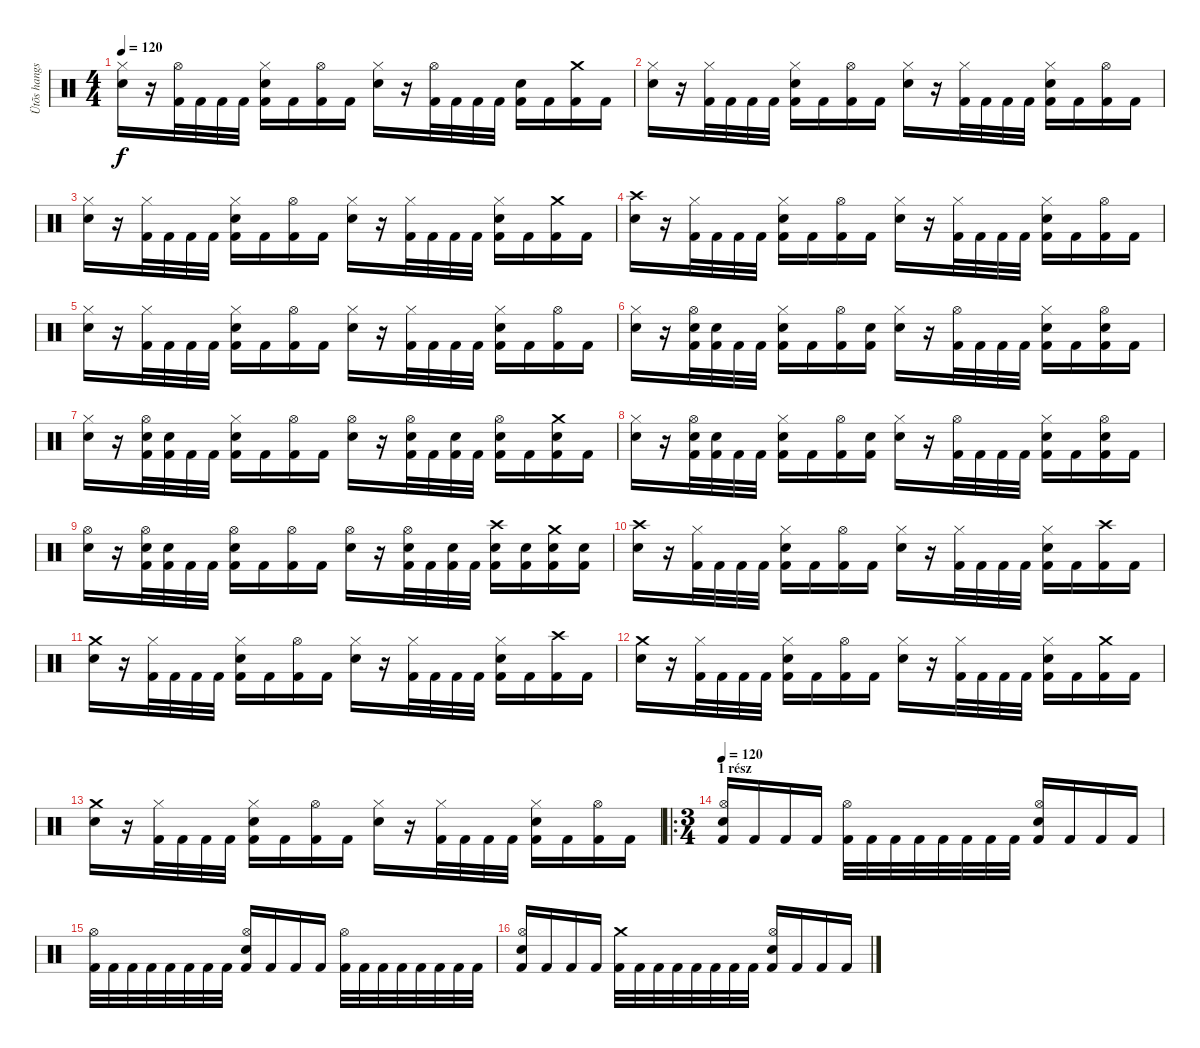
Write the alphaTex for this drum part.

\track ("Ütõs hangszer" "Ütõs hangs") {instrument percussion}
\staff {score}
\articulation defaults
\ts (4 4)
\tempo 120
\clef neutral
\ks c
("Hi-Hat (closed)" "Electric Snare (hit)").16{dy f} r.16 ("Hi-Hat (open)" "Kick (hit) 2").32 "Kick (hit) 2".32 "Kick (hit) 2".32 "Kick (hit) 2".32 ("Hi-Hat (closed)" "Electric Snare (hit)" "Kick (hit) 2").16 "Kick (hit) 2".16 ("Hi-Hat (open)" "Kick (hit) 2").16 "Kick (hit) 2".16 ("Hi-Hat (closed)" "Electric Snare (hit)").16 r.16 ("Hi-Hat (open)" "Kick (hit) 2").32 "Kick (hit) 2".32 "Kick (hit) 2".32 "Kick (hit) 2".32 ("Electric Snare (hit)" "Kick (hit) 2").16 "Kick (hit) 2".16 ("Crash medium (hit)" "Kick (hit) 2").16 "Kick (hit) 2".16 |
("Hi-Hat (closed)" "Electric Snare (hit)").16 r.16 ("Hi-Hat (closed)" "Kick (hit) 2").32 "Kick (hit) 2".32 "Kick (hit) 2".32 "Kick (hit) 2".32 ("Hi-Hat (closed)" "Electric Snare (hit)" "Kick (hit) 2").16 "Kick (hit) 2".16 ("Hi-Hat (open)" "Kick (hit) 2").16 "Kick (hit) 2".16 ("Hi-Hat (closed)" "Electric Snare (hit)").16 r.16 ("Hi-Hat (closed)" "Kick (hit) 2").32 "Kick (hit) 2".32 "Kick (hit) 2".32 "Kick (hit) 2".32 ("Hi-Hat (closed)" "Electric Snare (hit)" "Kick (hit) 2").16 "Kick (hit) 2".16 ("Hi-Hat (open)" "Kick (hit) 2").16 "Kick (hit) 2".16 |
("Hi-Hat (closed)" "Electric Snare (hit)").16 r.16 ("Hi-Hat (closed)" "Kick (hit) 2").32 "Kick (hit) 2".32 "Kick (hit) 2".32 "Kick (hit) 2".32 ("Hi-Hat (closed)" "Electric Snare (hit)" "Kick (hit) 2").16 "Kick (hit) 2".16 ("Hi-Hat (open)" "Kick (hit) 2").16 "Kick (hit) 2".16 ("Hi-Hat (closed)" "Electric Snare (hit)").16 r.16 ("Hi-Hat (closed)" "Kick (hit) 2").32 "Kick (hit) 2".32 "Kick (hit) 2".32 "Kick (hit) 2".32 ("Hi-Hat (closed)" "Electric Snare (hit)" "Kick (hit) 2").16 "Kick (hit) 2".16 ("Crash medium (hit)" "Kick (hit) 2").16 "Kick (hit) 2".16 |
("Crash high (hit)" "Electric Snare (hit)").16 r.16 ("Hi-Hat (closed)" "Kick (hit) 2").32 "Kick (hit) 2".32 "Kick (hit) 2".32 "Kick (hit) 2".32 ("Hi-Hat (closed)" "Electric Snare (hit)" "Kick (hit) 2").16 "Kick (hit) 2".16 ("Hi-Hat (open)" "Kick (hit) 2").16 "Kick (hit) 2".16 ("Hi-Hat (closed)" "Electric Snare (hit)").16 r.16 ("Hi-Hat (closed)" "Kick (hit) 2").32 "Kick (hit) 2".32 "Kick (hit) 2".32 "Kick (hit) 2".32 ("Hi-Hat (closed)" "Electric Snare (hit)" "Kick (hit) 2").16 "Kick (hit) 2".16 ("Hi-Hat (open)" "Kick (hit) 2").16 "Kick (hit) 2".16 |
("Hi-Hat (closed)" "Electric Snare (hit)").16 r.16 ("Hi-Hat (closed)" "Kick (hit) 2").32 "Kick (hit) 2".32 "Kick (hit) 2".32 "Kick (hit) 2".32 ("Hi-Hat (closed)" "Electric Snare (hit)" "Kick (hit) 2").16 "Kick (hit) 2".16 ("Hi-Hat (open)" "Kick (hit) 2").16 "Kick (hit) 2".16 ("Hi-Hat (closed)" "Electric Snare (hit)").16 r.16 ("Hi-Hat (closed)" "Kick (hit) 2").32 "Kick (hit) 2".32 "Kick (hit) 2".32 "Kick (hit) 2".32 ("Hi-Hat (closed)" "Electric Snare (hit)" "Kick (hit) 2").16 "Kick (hit) 2".16 ("Hi-Hat (open)" "Kick (hit) 2").16 "Kick (hit) 2".16 |
("Hi-Hat (closed)" "Electric Snare (hit)").16 r.16 ("Hi-Hat (open)" "Electric Snare (hit)" "Kick (hit) 2").32 ("Electric Snare (hit)" "Kick (hit) 2").32 "Kick (hit) 2".32 "Kick (hit) 2".32 ("Hi-Hat (closed)" "Electric Snare (hit)" "Kick (hit) 2").16 "Kick (hit) 2".16 ("Hi-Hat (open)" "Kick (hit) 2").16 ("Electric Snare (hit)" "Kick (hit) 2").16 ("Hi-Hat (closed)" "Electric Snare (hit)").16 r.16 ("Hi-Hat (open)" "Kick (hit) 2").32 "Kick (hit) 2".32 "Kick (hit) 2".32 "Kick (hit) 2".32 ("Hi-Hat (closed)" "Electric Snare (hit)" "Kick (hit) 2").16 "Kick (hit) 2".16 ("Hi-Hat (open)" "Electric Snare (hit)" "Kick (hit) 2").16 "Kick (hit) 2".16 |
("Hi-Hat (closed)" "Electric Snare (hit)").16 r.16 ("Hi-Hat (open)" "Electric Snare (hit)" "Kick (hit) 2").32 ("Electric Snare (hit)" "Kick (hit) 2").32 "Kick (hit) 2".32 "Kick (hit) 2".32 ("Hi-Hat (closed)" "Electric Snare (hit)" "Kick (hit) 2").16 "Kick (hit) 2".16 ("Hi-Hat (open)" "Kick (hit) 2").16 "Kick (hit) 2".16 ("Hi-Hat (open)" "Electric Snare (hit)").16 r.16 ("Hi-Hat (open)" "Electric Snare (hit)" "Kick (hit) 2").32 "Kick (hit) 2".32 ("Electric Snare (hit)" "Kick (hit) 2").32 "Kick (hit) 2".32 ("Hi-Hat (open)" "Electric Snare (hit)" "Kick (hit) 2").16 "Kick (hit) 2".16 ("Crash medium (hit)" "Electric Snare (hit)" "Kick (hit) 2").16 "Kick (hit) 2".16 |
("Hi-Hat (closed)" "Electric Snare (hit)").16 r.16 ("Hi-Hat (open)" "Electric Snare (hit)" "Kick (hit) 2").32 ("Electric Snare (hit)" "Kick (hit) 2").32 "Kick (hit) 2".32 "Kick (hit) 2".32 ("Hi-Hat (closed)" "Electric Snare (hit)" "Kick (hit) 2").16 "Kick (hit) 2".16 ("Hi-Hat (open)" "Kick (hit) 2").16 ("Electric Snare (hit)" "Kick (hit) 2").16 ("Hi-Hat (closed)" "Electric Snare (hit)").16 r.16 ("Hi-Hat (open)" "Kick (hit) 2").32 "Kick (hit) 2".32 "Kick (hit) 2".32 "Kick (hit) 2".32 ("Hi-Hat (closed)" "Electric Snare (hit)" "Kick (hit) 2").16 "Kick (hit) 2".16 ("Hi-Hat (open)" "Electric Snare (hit)" "Kick (hit) 2").16 "Kick (hit) 2".16 |
("Hi-Hat (open)" "Electric Snare (hit)").16 r.16 ("Hi-Hat (open)" "Electric Snare (hit)" "Kick (hit) 2").32 ("Electric Snare (hit)" "Kick (hit) 2").32 "Kick (hit) 2".32 "Kick (hit) 2".32 ("Hi-Hat (open)" "Electric Snare (hit)" "Kick (hit) 2").16 "Kick (hit) 2".16 ("Hi-Hat (open)" "Kick (hit) 2").16 "Kick (hit) 2".16 ("Hi-Hat (open)" "Electric Snare (hit)").16 r.16 ("Hi-Hat (open)" "Electric Snare (hit)" "Kick (hit) 2").32 "Kick (hit) 2".32 ("Electric Snare (hit)" "Kick (hit) 2").32 "Kick (hit) 2".32 ("Crash high (hit)" "Electric Snare (hit)" "Kick (hit) 2").16 ("Electric Snare (hit)" "Kick (hit) 2").16 ("Crash medium (hit)" "Electric Snare (hit)" "Kick (hit) 2").16 ("Electric Snare (hit)" "Kick (hit) 2").16 |
("Crash high (hit)" "Electric Snare (hit)").16 r.16 ("Hi-Hat (closed)" "Kick (hit) 2").32 "Kick (hit) 2".32 "Kick (hit) 2".32 "Kick (hit) 2".32 ("Hi-Hat (closed)" "Electric Snare (hit)" "Kick (hit) 2").16 "Kick (hit) 2".16 ("Hi-Hat (open)" "Kick (hit) 2").16 "Kick (hit) 2".16 ("Hi-Hat (closed)" "Electric Snare (hit)").16 r.16 ("Hi-Hat (closed)" "Kick (hit) 2").32 "Kick (hit) 2".32 "Kick (hit) 2".32 "Kick (hit) 2".32 ("Hi-Hat (closed)" "Electric Snare (hit)" "Kick (hit) 2").16 "Kick (hit) 2".16 ("Crash high (hit)" "Kick (hit) 2").16 "Kick (hit) 2".16 |
("Crash medium (hit)" "Electric Snare (hit)").16 r.16 ("Hi-Hat (closed)" "Kick (hit) 2").32 "Kick (hit) 2".32 "Kick (hit) 2".32 "Kick (hit) 2".32 ("Hi-Hat (closed)" "Electric Snare (hit)" "Kick (hit) 2").16 "Kick (hit) 2".16 ("Hi-Hat (open)" "Kick (hit) 2").16 "Kick (hit) 2".16 ("Hi-Hat (closed)" "Electric Snare (hit)").16 r.16 ("Hi-Hat (closed)" "Kick (hit) 2").32 "Kick (hit) 2".32 "Kick (hit) 2".32 "Kick (hit) 2".32 ("Hi-Hat (closed)" "Electric Snare (hit)" "Kick (hit) 2").16 "Kick (hit) 2".16 ("Crash high (hit)" "Kick (hit) 2").16 "Kick (hit) 2".16 |
("Crash medium (hit)" "Electric Snare (hit)").16 r.16 ("Hi-Hat (closed)" "Kick (hit) 2").32 "Kick (hit) 2".32 "Kick (hit) 2".32 "Kick (hit) 2".32 ("Hi-Hat (closed)" "Electric Snare (hit)" "Kick (hit) 2").16 "Kick (hit) 2".16 ("Hi-Hat (open)" "Kick (hit) 2").16 "Kick (hit) 2".16 ("Hi-Hat (closed)" "Electric Snare (hit)").16 r.16 ("Hi-Hat (closed)" "Kick (hit) 2").32 "Kick (hit) 2".32 "Kick (hit) 2".32 "Kick (hit) 2".32 ("Hi-Hat (closed)" "Electric Snare (hit)" "Kick (hit) 2").16 "Kick (hit) 2".16 ("Crash medium (hit)" "Kick (hit) 2").16 "Kick (hit) 2".16 |
("Crash medium (hit)" "Electric Snare (hit)").16 r.16 ("Hi-Hat (closed)" "Kick (hit) 2").32 "Kick (hit) 2".32 "Kick (hit) 2".32 "Kick (hit) 2".32 ("Hi-Hat (closed)" "Electric Snare (hit)" "Kick (hit) 2").16 "Kick (hit) 2".16 ("Hi-Hat (open)" "Kick (hit) 2").16 "Kick (hit) 2".16 ("Hi-Hat (closed)" "Electric Snare (hit)").16 r.16 ("Hi-Hat (closed)" "Kick (hit) 2").32 "Kick (hit) 2".32 "Kick (hit) 2".32 "Kick (hit) 2".32 ("Hi-Hat (closed)" "Electric Snare (hit)" "Kick (hit) 2").16 "Kick (hit) 2".16 ("Hi-Hat (open)" "Kick (hit) 2").16 "Kick (hit) 2".16 |
\ro
\ts (3 4)
\section ("" "1 rész")
\tempo 120
("Hi-Hat (open)" "Electric Snare (hit)" "Kick (hit) 2").16 "Kick (hit) 2".16 "Kick (hit) 2".16 "Kick (hit) 2".16 ("Hi-Hat (open)" "Kick (hit) 2").32 "Kick (hit) 2".32 "Kick (hit) 2".32 "Kick (hit) 2".32 "Kick (hit) 2".32 "Kick (hit) 2".32 "Kick (hit) 2".32 "Kick (hit) 2".32 ("Hi-Hat (open)" "Electric Snare (hit)" "Kick (hit) 2").16 "Kick (hit) 2".16 "Kick (hit) 2".16 "Kick (hit) 2".16 |
("Hi-Hat (open)" "Kick (hit) 2").32 "Kick (hit) 2".32 "Kick (hit) 2".32 "Kick (hit) 2".32 "Kick (hit) 2".32 "Kick (hit) 2".32 "Kick (hit) 2".32 "Kick (hit) 2".32 ("Hi-Hat (open)" "Electric Snare (hit)" "Kick (hit) 2").16 "Kick (hit) 2".16 "Kick (hit) 2".16 "Kick (hit) 2".16 ("Hi-Hat (open)" "Kick (hit) 2").32 "Kick (hit) 2".32 "Kick (hit) 2".32 "Kick (hit) 2".32 "Kick (hit) 2".32 "Kick (hit) 2".32 "Kick (hit) 2".32 "Kick (hit) 2".32 |
("Hi-Hat (open)" "Electric Snare (hit)" "Kick (hit) 2").16 "Kick (hit) 2".16 "Kick (hit) 2".16 "Kick (hit) 2".16 ("Crash medium (hit)" "Kick (hit) 2").32 "Kick (hit) 2".32 "Kick (hit) 2".32 "Kick (hit) 2".32 "Kick (hit) 2".32 "Kick (hit) 2".32 "Kick (hit) 2".32 "Kick (hit) 2".32 ("Hi-Hat (open)" "Electric Snare (hit)" "Kick (hit) 2").16 "Kick (hit) 2".16 "Kick (hit) 2".16 "Kick (hit) 2".16
